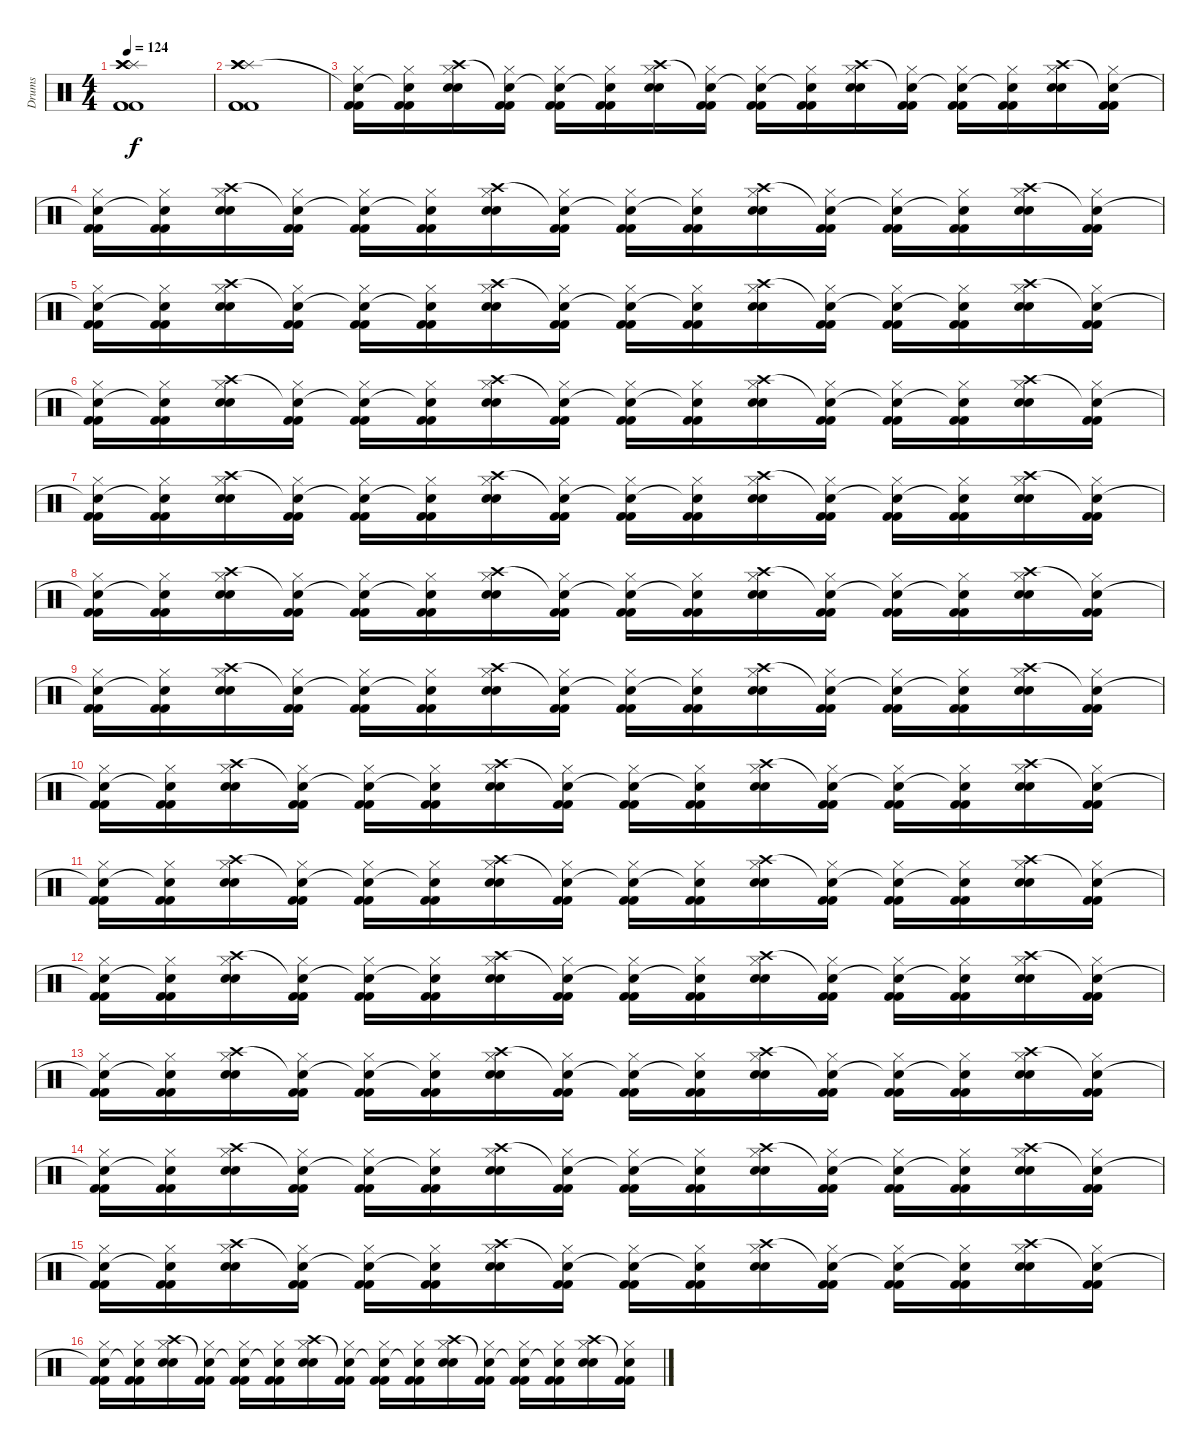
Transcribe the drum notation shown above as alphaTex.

\track ("Drums" "Drums") {instrument percussion}
\staff {score}
\articulation defaults
\ts (4 4)
\tempo 124
\clef neutral
\ks c
("Splash (hit)" "Crash high (hit)" "Crash high (hit)" "Kick (hit) 2" "Kick (hit) 2" "Kick (hit) 2").1{dy f} |
("Splash (hit)" "Crash high (hit)" "Crash high (hit)" "Kick (hit) 2" "Kick (hit) 2" "Kick (hit) 2").1 |
("Snare (hit)"{t} "Hi-Hat (closed)" "Kick (hit) 2" "Kick (hit) 2").16 ("Snare (hit)"{t} "Hi-Hat (closed)" "Kick (hit) 2" "Kick (hit) 2").16 ("Crash high (hit)" "Hi-Hat (closed)" "Snare (hit) 2" "Snare (hit) 2").16 ("Snare (hit)"{t} "Hi-Hat (closed)" "Kick (hit) 2" "Kick (hit) 2").16 ("Snare (hit)"{t} "Hi-Hat (closed)" "Kick (hit) 2" "Kick (hit) 2").16 ("Snare (hit)"{t} "Hi-Hat (closed)" "Kick (hit) 2" "Kick (hit) 2").16 ("Crash high (hit)" "Hi-Hat (closed)" "Snare (hit) 2" "Snare (hit) 2").16 ("Snare (hit)"{t} "Hi-Hat (closed)" "Kick (hit) 2" "Kick (hit) 2").16 ("Snare (hit)"{t} "Hi-Hat (closed)" "Kick (hit) 2" "Kick (hit) 2").16 ("Snare (hit)"{t} "Hi-Hat (closed)" "Kick (hit) 2" "Kick (hit) 2").16 ("Crash high (hit)" "Hi-Hat (closed)" "Snare (hit) 2" "Snare (hit) 2").16 ("Snare (hit)"{t} "Hi-Hat (closed)" "Kick (hit) 2" "Kick (hit) 2").16 ("Snare (hit)"{t} "Hi-Hat (closed)" "Kick (hit) 2" "Kick (hit) 2").16 ("Snare (hit)"{t} "Hi-Hat (closed)" "Kick (hit) 2" "Kick (hit) 2").16 ("Crash high (hit)" "Hi-Hat (closed)" "Snare (hit) 2" "Snare (hit) 2").16 ("Snare (hit)"{t} "Hi-Hat (closed)" "Kick (hit) 2" "Kick (hit) 2").16 |
("Snare (hit)"{t} "Hi-Hat (closed)" "Kick (hit) 2" "Kick (hit) 2").16 ("Snare (hit)"{t} "Hi-Hat (closed)" "Kick (hit) 2" "Kick (hit) 2").16 ("Crash high (hit)" "Hi-Hat (closed)" "Snare (hit) 2" "Snare (hit) 2").16 ("Snare (hit)"{t} "Hi-Hat (closed)" "Kick (hit) 2" "Kick (hit) 2").16 ("Snare (hit)"{t} "Hi-Hat (closed)" "Kick (hit) 2" "Kick (hit) 2").16 ("Snare (hit)"{t} "Hi-Hat (closed)" "Kick (hit) 2" "Kick (hit) 2").16 ("Crash high (hit)" "Hi-Hat (closed)" "Snare (hit) 2" "Snare (hit) 2").16 ("Snare (hit)"{t} "Hi-Hat (closed)" "Kick (hit) 2" "Kick (hit) 2").16 ("Snare (hit)"{t} "Hi-Hat (closed)" "Kick (hit) 2" "Kick (hit) 2").16 ("Snare (hit)"{t} "Hi-Hat (closed)" "Kick (hit) 2" "Kick (hit) 2").16 ("Crash high (hit)" "Hi-Hat (closed)" "Snare (hit) 2" "Snare (hit) 2").16 ("Snare (hit)"{t} "Hi-Hat (closed)" "Kick (hit) 2" "Kick (hit) 2").16 ("Snare (hit)"{t} "Hi-Hat (closed)" "Kick (hit) 2" "Kick (hit) 2").16 ("Snare (hit)"{t} "Hi-Hat (closed)" "Kick (hit) 2" "Kick (hit) 2").16 ("Crash high (hit)" "Hi-Hat (closed)" "Snare (hit) 2" "Snare (hit) 2").16 ("Snare (hit)"{t} "Hi-Hat (closed)" "Kick (hit) 2" "Kick (hit) 2").16 |
("Snare (hit)"{t} "Hi-Hat (closed)" "Kick (hit) 2" "Kick (hit) 2").16 ("Snare (hit)"{t} "Hi-Hat (closed)" "Kick (hit) 2" "Kick (hit) 2").16 ("Crash high (hit)" "Hi-Hat (closed)" "Snare (hit) 2" "Snare (hit) 2").16 ("Snare (hit)"{t} "Hi-Hat (closed)" "Kick (hit) 2" "Kick (hit) 2").16 ("Snare (hit)"{t} "Hi-Hat (closed)" "Kick (hit) 2" "Kick (hit) 2").16 ("Snare (hit)"{t} "Hi-Hat (closed)" "Kick (hit) 2" "Kick (hit) 2").16 ("Crash high (hit)" "Hi-Hat (closed)" "Snare (hit) 2" "Snare (hit) 2").16 ("Snare (hit)"{t} "Hi-Hat (closed)" "Kick (hit) 2" "Kick (hit) 2").16 ("Snare (hit)"{t} "Hi-Hat (closed)" "Kick (hit) 2" "Kick (hit) 2").16 ("Snare (hit)"{t} "Hi-Hat (closed)" "Kick (hit) 2" "Kick (hit) 2").16 ("Crash high (hit)" "Hi-Hat (closed)" "Snare (hit) 2" "Snare (hit) 2").16 ("Snare (hit)"{t} "Hi-Hat (closed)" "Kick (hit) 2" "Kick (hit) 2").16 ("Snare (hit)"{t} "Hi-Hat (closed)" "Kick (hit) 2" "Kick (hit) 2").16 ("Snare (hit)"{t} "Hi-Hat (closed)" "Kick (hit) 2" "Kick (hit) 2").16 ("Crash high (hit)" "Hi-Hat (closed)" "Snare (hit) 2" "Snare (hit) 2").16 ("Snare (hit)"{t} "Hi-Hat (closed)" "Kick (hit) 2" "Kick (hit) 2").16 |
("Snare (hit)"{t} "Hi-Hat (closed)" "Kick (hit) 2" "Kick (hit) 2").16 ("Snare (hit)"{t} "Hi-Hat (closed)" "Kick (hit) 2" "Kick (hit) 2").16 ("Crash high (hit)" "Hi-Hat (closed)" "Snare (hit) 2" "Snare (hit) 2").16 ("Snare (hit)"{t} "Hi-Hat (closed)" "Kick (hit) 2" "Kick (hit) 2").16 ("Snare (hit)"{t} "Hi-Hat (closed)" "Kick (hit) 2" "Kick (hit) 2").16 ("Snare (hit)"{t} "Hi-Hat (closed)" "Kick (hit) 2" "Kick (hit) 2").16 ("Crash high (hit)" "Hi-Hat (closed)" "Snare (hit) 2" "Snare (hit) 2").16 ("Snare (hit)"{t} "Hi-Hat (closed)" "Kick (hit) 2" "Kick (hit) 2").16 ("Snare (hit)"{t} "Hi-Hat (closed)" "Kick (hit) 2" "Kick (hit) 2").16 ("Snare (hit)"{t} "Hi-Hat (closed)" "Kick (hit) 2" "Kick (hit) 2").16 ("Crash high (hit)" "Hi-Hat (closed)" "Snare (hit) 2" "Snare (hit) 2").16 ("Snare (hit)"{t} "Hi-Hat (closed)" "Kick (hit) 2" "Kick (hit) 2").16 ("Snare (hit)"{t} "Hi-Hat (closed)" "Kick (hit) 2" "Kick (hit) 2").16 ("Snare (hit)"{t} "Hi-Hat (closed)" "Kick (hit) 2" "Kick (hit) 2").16 ("Crash high (hit)" "Hi-Hat (closed)" "Snare (hit) 2" "Snare (hit) 2").16 ("Snare (hit)"{t} "Hi-Hat (closed)" "Kick (hit) 2" "Kick (hit) 2").16 |
("Snare (hit)"{t} "Hi-Hat (closed)" "Kick (hit) 2" "Kick (hit) 2").16 ("Snare (hit)"{t} "Hi-Hat (closed)" "Kick (hit) 2" "Kick (hit) 2").16 ("Crash high (hit)" "Hi-Hat (closed)" "Snare (hit) 2" "Snare (hit) 2").16 ("Snare (hit)"{t} "Hi-Hat (closed)" "Kick (hit) 2" "Kick (hit) 2").16 ("Snare (hit)"{t} "Hi-Hat (closed)" "Kick (hit) 2" "Kick (hit) 2").16 ("Snare (hit)"{t} "Hi-Hat (closed)" "Kick (hit) 2" "Kick (hit) 2").16 ("Crash high (hit)" "Hi-Hat (closed)" "Snare (hit) 2" "Snare (hit) 2").16 ("Snare (hit)"{t} "Hi-Hat (closed)" "Kick (hit) 2" "Kick (hit) 2").16 ("Snare (hit)"{t} "Hi-Hat (closed)" "Kick (hit) 2" "Kick (hit) 2").16 ("Snare (hit)"{t} "Hi-Hat (closed)" "Kick (hit) 2" "Kick (hit) 2").16 ("Crash high (hit)" "Hi-Hat (closed)" "Snare (hit) 2" "Snare (hit) 2").16 ("Snare (hit)"{t} "Hi-Hat (closed)" "Kick (hit) 2" "Kick (hit) 2").16 ("Snare (hit)"{t} "Hi-Hat (closed)" "Kick (hit) 2" "Kick (hit) 2").16 ("Snare (hit)"{t} "Hi-Hat (closed)" "Kick (hit) 2" "Kick (hit) 2").16 ("Crash high (hit)" "Hi-Hat (closed)" "Snare (hit) 2" "Snare (hit) 2").16 ("Snare (hit)"{t} "Hi-Hat (closed)" "Kick (hit) 2" "Kick (hit) 2").16 |
("Snare (hit)"{t} "Hi-Hat (closed)" "Kick (hit) 2" "Kick (hit) 2").16 ("Snare (hit)"{t} "Hi-Hat (closed)" "Kick (hit) 2" "Kick (hit) 2").16 ("Crash high (hit)" "Hi-Hat (closed)" "Snare (hit) 2" "Snare (hit) 2").16 ("Snare (hit)"{t} "Hi-Hat (closed)" "Kick (hit) 2" "Kick (hit) 2").16 ("Snare (hit)"{t} "Hi-Hat (closed)" "Kick (hit) 2" "Kick (hit) 2").16 ("Snare (hit)"{t} "Hi-Hat (closed)" "Kick (hit) 2" "Kick (hit) 2").16 ("Crash high (hit)" "Hi-Hat (closed)" "Snare (hit) 2" "Snare (hit) 2").16 ("Snare (hit)"{t} "Hi-Hat (closed)" "Kick (hit) 2" "Kick (hit) 2").16 ("Snare (hit)"{t} "Hi-Hat (closed)" "Kick (hit) 2" "Kick (hit) 2").16 ("Snare (hit)"{t} "Hi-Hat (closed)" "Kick (hit) 2" "Kick (hit) 2").16 ("Crash high (hit)" "Hi-Hat (closed)" "Snare (hit) 2" "Snare (hit) 2").16 ("Snare (hit)"{t} "Hi-Hat (closed)" "Kick (hit) 2" "Kick (hit) 2").16 ("Snare (hit)"{t} "Hi-Hat (closed)" "Kick (hit) 2" "Kick (hit) 2").16 ("Snare (hit)"{t} "Hi-Hat (closed)" "Kick (hit) 2" "Kick (hit) 2").16 ("Crash high (hit)" "Hi-Hat (closed)" "Snare (hit) 2" "Snare (hit) 2").16 ("Snare (hit)"{t} "Hi-Hat (closed)" "Kick (hit) 2" "Kick (hit) 2").16 |
("Snare (hit)"{t} "Hi-Hat (closed)" "Kick (hit) 2" "Kick (hit) 2").16 ("Snare (hit)"{t} "Hi-Hat (closed)" "Kick (hit) 2" "Kick (hit) 2").16 ("Crash high (hit)" "Hi-Hat (closed)" "Snare (hit) 2" "Snare (hit) 2").16 ("Snare (hit)"{t} "Hi-Hat (closed)" "Kick (hit) 2" "Kick (hit) 2").16 ("Snare (hit)"{t} "Hi-Hat (closed)" "Kick (hit) 2" "Kick (hit) 2").16 ("Snare (hit)"{t} "Hi-Hat (closed)" "Kick (hit) 2" "Kick (hit) 2").16 ("Crash high (hit)" "Hi-Hat (closed)" "Snare (hit) 2" "Snare (hit) 2").16 ("Snare (hit)"{t} "Hi-Hat (closed)" "Kick (hit) 2" "Kick (hit) 2").16 ("Snare (hit)"{t} "Hi-Hat (closed)" "Kick (hit) 2" "Kick (hit) 2").16 ("Snare (hit)"{t} "Hi-Hat (closed)" "Kick (hit) 2" "Kick (hit) 2").16 ("Crash high (hit)" "Hi-Hat (closed)" "Snare (hit) 2" "Snare (hit) 2").16 ("Snare (hit)"{t} "Hi-Hat (closed)" "Kick (hit) 2" "Kick (hit) 2").16 ("Snare (hit)"{t} "Hi-Hat (closed)" "Kick (hit) 2" "Kick (hit) 2").16 ("Snare (hit)"{t} "Hi-Hat (closed)" "Kick (hit) 2" "Kick (hit) 2").16 ("Crash high (hit)" "Hi-Hat (closed)" "Snare (hit) 2" "Snare (hit) 2").16 ("Snare (hit)"{t} "Hi-Hat (closed)" "Kick (hit) 2" "Kick (hit) 2").16 |
("Snare (hit)"{t} "Hi-Hat (closed)" "Kick (hit) 2" "Kick (hit) 2").16 ("Snare (hit)"{t} "Hi-Hat (closed)" "Kick (hit) 2" "Kick (hit) 2").16 ("Crash high (hit)" "Hi-Hat (closed)" "Snare (hit) 2" "Snare (hit) 2").16 ("Snare (hit)"{t} "Hi-Hat (closed)" "Kick (hit) 2" "Kick (hit) 2").16 ("Snare (hit)"{t} "Hi-Hat (closed)" "Kick (hit) 2" "Kick (hit) 2").16 ("Snare (hit)"{t} "Hi-Hat (closed)" "Kick (hit) 2" "Kick (hit) 2").16 ("Crash high (hit)" "Hi-Hat (closed)" "Snare (hit) 2" "Snare (hit) 2").16 ("Snare (hit)"{t} "Hi-Hat (closed)" "Kick (hit) 2" "Kick (hit) 2").16 ("Snare (hit)"{t} "Hi-Hat (closed)" "Kick (hit) 2" "Kick (hit) 2").16 ("Snare (hit)"{t} "Hi-Hat (closed)" "Kick (hit) 2" "Kick (hit) 2").16 ("Crash high (hit)" "Hi-Hat (closed)" "Snare (hit) 2" "Snare (hit) 2").16 ("Snare (hit)"{t} "Hi-Hat (closed)" "Kick (hit) 2" "Kick (hit) 2").16 ("Snare (hit)"{t} "Hi-Hat (closed)" "Kick (hit) 2" "Kick (hit) 2").16 ("Snare (hit)"{t} "Hi-Hat (closed)" "Kick (hit) 2" "Kick (hit) 2").16 ("Crash high (hit)" "Hi-Hat (closed)" "Snare (hit) 2" "Snare (hit) 2").16 ("Snare (hit)"{t} "Hi-Hat (closed)" "Kick (hit) 2" "Kick (hit) 2").16 |
("Snare (hit)"{t} "Hi-Hat (closed)" "Kick (hit) 2" "Kick (hit) 2").16 ("Snare (hit)"{t} "Hi-Hat (closed)" "Kick (hit) 2" "Kick (hit) 2").16 ("Crash high (hit)" "Hi-Hat (closed)" "Snare (hit) 2" "Snare (hit) 2").16 ("Snare (hit)"{t} "Hi-Hat (closed)" "Kick (hit) 2" "Kick (hit) 2").16 ("Snare (hit)"{t} "Hi-Hat (closed)" "Kick (hit) 2" "Kick (hit) 2").16 ("Snare (hit)"{t} "Hi-Hat (closed)" "Kick (hit) 2" "Kick (hit) 2").16 ("Crash high (hit)" "Hi-Hat (closed)" "Snare (hit) 2" "Snare (hit) 2").16 ("Snare (hit)"{t} "Hi-Hat (closed)" "Kick (hit) 2" "Kick (hit) 2").16 ("Snare (hit)"{t} "Hi-Hat (closed)" "Kick (hit) 2" "Kick (hit) 2").16 ("Snare (hit)"{t} "Hi-Hat (closed)" "Kick (hit) 2" "Kick (hit) 2").16 ("Crash high (hit)" "Hi-Hat (closed)" "Snare (hit) 2" "Snare (hit) 2").16 ("Snare (hit)"{t} "Hi-Hat (closed)" "Kick (hit) 2" "Kick (hit) 2").16 ("Snare (hit)"{t} "Hi-Hat (closed)" "Kick (hit) 2" "Kick (hit) 2").16 ("Snare (hit)"{t} "Hi-Hat (closed)" "Kick (hit) 2" "Kick (hit) 2").16 ("Crash high (hit)" "Hi-Hat (closed)" "Snare (hit) 2" "Snare (hit) 2").16 ("Snare (hit)"{t} "Hi-Hat (closed)" "Kick (hit) 2" "Kick (hit) 2").16 |
("Snare (hit)"{t} "Hi-Hat (closed)" "Kick (hit) 2" "Kick (hit) 2").16 ("Snare (hit)"{t} "Hi-Hat (closed)" "Kick (hit) 2" "Kick (hit) 2").16 ("Crash high (hit)" "Hi-Hat (closed)" "Snare (hit) 2" "Snare (hit) 2").16 ("Snare (hit)"{t} "Hi-Hat (closed)" "Kick (hit) 2" "Kick (hit) 2").16 ("Snare (hit)"{t} "Hi-Hat (closed)" "Kick (hit) 2" "Kick (hit) 2").16 ("Snare (hit)"{t} "Hi-Hat (closed)" "Kick (hit) 2" "Kick (hit) 2").16 ("Crash high (hit)" "Hi-Hat (closed)" "Snare (hit) 2" "Snare (hit) 2").16 ("Snare (hit)"{t} "Hi-Hat (closed)" "Kick (hit) 2" "Kick (hit) 2").16 ("Snare (hit)"{t} "Hi-Hat (closed)" "Kick (hit) 2" "Kick (hit) 2").16 ("Snare (hit)"{t} "Hi-Hat (closed)" "Kick (hit) 2" "Kick (hit) 2").16 ("Crash high (hit)" "Hi-Hat (closed)" "Snare (hit) 2" "Snare (hit) 2").16 ("Snare (hit)"{t} "Hi-Hat (closed)" "Kick (hit) 2" "Kick (hit) 2").16 ("Snare (hit)"{t} "Hi-Hat (closed)" "Kick (hit) 2" "Kick (hit) 2").16 ("Snare (hit)"{t} "Hi-Hat (closed)" "Kick (hit) 2" "Kick (hit) 2").16 ("Crash high (hit)" "Hi-Hat (closed)" "Snare (hit) 2" "Snare (hit) 2").16 ("Snare (hit)"{t} "Hi-Hat (closed)" "Kick (hit) 2" "Kick (hit) 2").16 |
("Snare (hit)"{t} "Hi-Hat (closed)" "Kick (hit) 2" "Kick (hit) 2").16 ("Snare (hit)"{t} "Hi-Hat (closed)" "Kick (hit) 2" "Kick (hit) 2").16 ("Crash high (hit)" "Hi-Hat (closed)" "Snare (hit) 2" "Snare (hit) 2").16 ("Snare (hit)"{t} "Hi-Hat (closed)" "Kick (hit) 2" "Kick (hit) 2").16 ("Snare (hit)"{t} "Hi-Hat (closed)" "Kick (hit) 2" "Kick (hit) 2").16 ("Snare (hit)"{t} "Hi-Hat (closed)" "Kick (hit) 2" "Kick (hit) 2").16 ("Crash high (hit)" "Hi-Hat (closed)" "Snare (hit) 2" "Snare (hit) 2").16 ("Snare (hit)"{t} "Hi-Hat (closed)" "Kick (hit) 2" "Kick (hit) 2").16 ("Snare (hit)"{t} "Hi-Hat (closed)" "Kick (hit) 2" "Kick (hit) 2").16 ("Snare (hit)"{t} "Hi-Hat (closed)" "Kick (hit) 2" "Kick (hit) 2").16 ("Crash high (hit)" "Hi-Hat (closed)" "Snare (hit) 2" "Snare (hit) 2").16 ("Snare (hit)"{t} "Hi-Hat (closed)" "Kick (hit) 2" "Kick (hit) 2").16 ("Snare (hit)"{t} "Hi-Hat (closed)" "Kick (hit) 2" "Kick (hit) 2").16 ("Snare (hit)"{t} "Hi-Hat (closed)" "Kick (hit) 2" "Kick (hit) 2").16 ("Crash high (hit)" "Hi-Hat (closed)" "Snare (hit) 2" "Snare (hit) 2").16 ("Snare (hit)"{t} "Hi-Hat (closed)" "Kick (hit) 2" "Kick (hit) 2").16 |
("Snare (hit)"{t} "Hi-Hat (closed)" "Kick (hit) 2" "Kick (hit) 2").16 ("Snare (hit)"{t} "Hi-Hat (closed)" "Kick (hit) 2" "Kick (hit) 2").16 ("Crash high (hit)" "Hi-Hat (closed)" "Snare (hit) 2" "Snare (hit) 2").16 ("Snare (hit)"{t} "Hi-Hat (closed)" "Kick (hit) 2" "Kick (hit) 2").16 ("Snare (hit)"{t} "Hi-Hat (closed)" "Kick (hit) 2" "Kick (hit) 2").16 ("Snare (hit)"{t} "Hi-Hat (closed)" "Kick (hit) 2" "Kick (hit) 2").16 ("Crash high (hit)" "Hi-Hat (closed)" "Snare (hit) 2" "Snare (hit) 2").16 ("Snare (hit)"{t} "Hi-Hat (closed)" "Kick (hit) 2" "Kick (hit) 2").16 ("Snare (hit)"{t} "Hi-Hat (closed)" "Kick (hit) 2" "Kick (hit) 2").16 ("Snare (hit)"{t} "Hi-Hat (closed)" "Kick (hit) 2" "Kick (hit) 2").16 ("Crash high (hit)" "Hi-Hat (closed)" "Snare (hit) 2" "Snare (hit) 2").16 ("Snare (hit)"{t} "Hi-Hat (closed)" "Kick (hit) 2" "Kick (hit) 2").16 ("Snare (hit)"{t} "Hi-Hat (closed)" "Kick (hit) 2" "Kick (hit) 2").16 ("Snare (hit)"{t} "Hi-Hat (closed)" "Kick (hit) 2" "Kick (hit) 2").16 ("Crash high (hit)" "Hi-Hat (closed)" "Snare (hit) 2" "Snare (hit) 2").16 ("Snare (hit)"{t} "Hi-Hat (closed)" "Kick (hit) 2" "Kick (hit) 2").16 |
("Snare (hit)"{t} "Hi-Hat (closed)" "Kick (hit) 2" "Kick (hit) 2").16 ("Snare (hit)"{t} "Hi-Hat (closed)" "Kick (hit) 2" "Kick (hit) 2").16 ("Crash high (hit)" "Hi-Hat (closed)" "Snare (hit) 2" "Snare (hit) 2").16 ("Snare (hit)"{t} "Hi-Hat (closed)" "Kick (hit) 2" "Kick (hit) 2").16 ("Snare (hit)"{t} "Hi-Hat (closed)" "Kick (hit) 2" "Kick (hit) 2").16 ("Snare (hit)"{t} "Hi-Hat (closed)" "Kick (hit) 2" "Kick (hit) 2").16 ("Crash high (hit)" "Hi-Hat (closed)" "Snare (hit) 2" "Snare (hit) 2").16 ("Snare (hit)"{t} "Hi-Hat (closed)" "Kick (hit) 2" "Kick (hit) 2").16 ("Snare (hit)"{t} "Hi-Hat (closed)" "Kick (hit) 2" "Kick (hit) 2").16 ("Snare (hit)"{t} "Hi-Hat (closed)" "Kick (hit) 2" "Kick (hit) 2").16 ("Crash high (hit)" "Hi-Hat (closed)" "Snare (hit) 2" "Snare (hit) 2").16 ("Snare (hit)"{t} "Hi-Hat (closed)" "Kick (hit) 2" "Kick (hit) 2").16 ("Snare (hit)"{t} "Hi-Hat (closed)" "Kick (hit) 2" "Kick (hit) 2").16 ("Snare (hit)"{t} "Hi-Hat (closed)" "Kick (hit) 2" "Kick (hit) 2").16 ("Crash high (hit)" "Hi-Hat (closed)" "Snare (hit) 2" "Snare (hit) 2").16 ("Snare (hit)"{t} "Hi-Hat (closed)" "Kick (hit) 2" "Kick (hit) 2").16 |
("Snare (hit)"{t} "Hi-Hat (closed)" "Kick (hit) 2" "Kick (hit) 2").16 ("Snare (hit)"{t} "Hi-Hat (closed)" "Kick (hit) 2" "Kick (hit) 2").16 ("Crash high (hit)" "Hi-Hat (closed)" "Snare (hit) 2" "Snare (hit) 2").16 ("Snare (hit)"{t} "Hi-Hat (closed)" "Kick (hit) 2" "Kick (hit) 2").16 ("Snare (hit)"{t} "Hi-Hat (closed)" "Kick (hit) 2" "Kick (hit) 2").16 ("Snare (hit)"{t} "Hi-Hat (closed)" "Kick (hit) 2" "Kick (hit) 2").16 ("Crash high (hit)" "Hi-Hat (closed)" "Snare (hit) 2" "Snare (hit) 2").16 ("Snare (hit)"{t} "Hi-Hat (closed)" "Kick (hit) 2" "Kick (hit) 2").16 ("Snare (hit)"{t} "Hi-Hat (closed)" "Kick (hit) 2" "Kick (hit) 2").16 ("Snare (hit)"{t} "Hi-Hat (closed)" "Kick (hit) 2" "Kick (hit) 2").16 ("Crash high (hit)" "Hi-Hat (closed)" "Snare (hit) 2" "Snare (hit) 2").16 ("Snare (hit)"{t} "Hi-Hat (closed)" "Kick (hit) 2" "Kick (hit) 2").16 ("Snare (hit)"{t} "Hi-Hat (closed)" "Kick (hit) 2" "Kick (hit) 2").16 ("Snare (hit)"{t} "Hi-Hat (closed)" "Kick (hit) 2" "Kick (hit) 2").16 ("Crash high (hit)" "Hi-Hat (closed)" "Snare (hit) 2" "Snare (hit) 2").16 ("Snare (hit)"{t} "Hi-Hat (closed)" "Kick (hit) 2" "Kick (hit) 2").16
